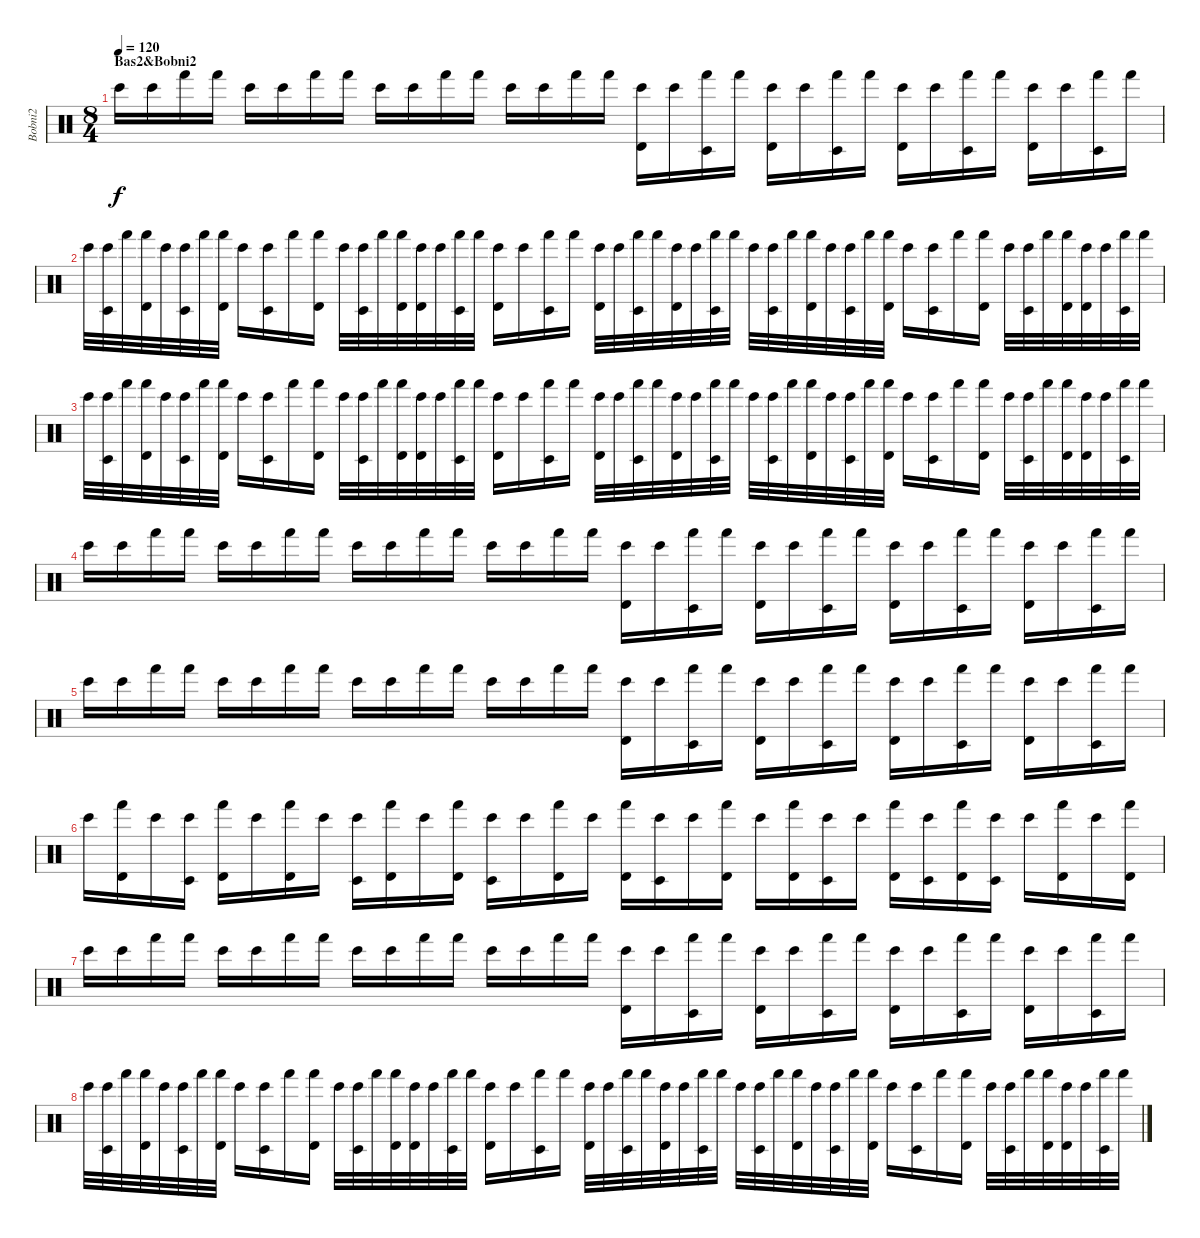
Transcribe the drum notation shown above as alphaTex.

\track ("Bobni2" "Bobni2") {instrument percussion}
\staff {score}
\articulation defaults
\ts (8 4)
\section ("" "Bas2&Bobni2")
\tempo 120
\clef neutral
\ks c "Bongo High (hit)".16{dy f} "Bongo High (hit)".16 "Hand (hit)".16 "Hand (hit)".16 "Bongo High (hit)".16 "Bongo High (hit)".16 "Hand (hit)".16 "Hand (hit)".16 "Bongo High (hit)".16 "Bongo High (hit)".16 "Hand (hit)".16 "Hand (hit)".16 "Bongo High (hit)".16 "Bongo High (hit)".16 "Hand (hit)".16 "Hand (hit)".16
("Bongo High (hit)" "Timbale high (hit)").16 "Bongo High (hit)".16 ("Hand (hit)" "Timbale low (hit)").16 "Hand (hit)".16 ("Bongo High (hit)" "Timbale high (hit)").16 "Bongo High (hit)".16 ("Hand (hit)" "Timbale low (hit)").16 "Hand (hit)".16 ("Bongo High (hit)" "Timbale high (hit)").16 "Bongo High (hit)".16 ("Hand (hit)" "Timbale low (hit)").16 "Hand (hit)".16 ("Bongo High (hit)" "Timbale high (hit)").16 "Bongo High (hit)".16 ("Hand (hit)" "Timbale low (hit)").16 "Hand (hit)".16 |
"Bongo High (hit)".32 ("Bongo High (hit)" "Timbale low (hit)").32 "Hand (hit)".32 ("Hand (hit)" "Timbale high (hit)").32 "Bongo High (hit)".32 ("Bongo High (hit)" "Timbale low (hit)").32 "Hand (hit)".32 ("Hand (hit)" "Timbale high (hit)").32 "Bongo High (hit)".16 ("Bongo High (hit)" "Timbale low (hit)").16 "Hand (hit)".16 ("Hand (hit)" "Timbale high (hit)").16 "Bongo High (hit)".32 ("Bongo High (hit)" "Timbale low (hit)").32 "Hand (hit)".32 ("Hand (hit)" "Timbale high (hit)").32 ("Bongo High (hit)" "Timbale high (hit)").32 "Bongo High (hit)".32 ("Hand (hit)" "Timbale low (hit)").32 "Hand (hit)".32 ("Bongo High (hit)" "Timbale high (hit)").16 "Bongo High (hit)".16 ("Hand (hit)" "Timbale low (hit)").16 "Hand (hit)".16 ("Bongo High (hit)" "Timbale high (hit)").32 "Bongo High (hit)".32 ("Hand (hit)" "Timbale low (hit)").32 "Hand (hit)".32 ("Bongo High (hit)" "Timbale high (hit)").32 "Bongo High (hit)".32 ("Hand (hit)" "Timbale low (hit)").32 "Hand (hit)".32 "Bongo High (hit)".32 ("Bongo High (hit)" "Timbale low (hit)").32 "Hand (hit)".32 ("Hand (hit)" "Timbale high (hit)").32 "Bongo High (hit)".32 ("Bongo High (hit)" "Timbale low (hit)").32 "Hand (hit)".32 ("Hand (hit)" "Timbale high (hit)").32 "Bongo High (hit)".16 ("Bongo High (hit)" "Timbale low (hit)").16 "Hand (hit)".16 ("Hand (hit)" "Timbale high (hit)").16 "Bongo High (hit)".32 ("Bongo High (hit)" "Timbale low (hit)").32 "Hand (hit)".32 ("Hand (hit)" "Timbale high (hit)").32 ("Bongo High (hit)" "Timbale high (hit)").32 "Bongo High (hit)".32 ("Hand (hit)" "Timbale low (hit)").32 "Hand (hit)".32 |
"Bongo High (hit)".32 ("Bongo High (hit)" "Timbale low (hit)").32 "Hand (hit)".32 ("Hand (hit)" "Timbale high (hit)").32 "Bongo High (hit)".32 ("Bongo High (hit)" "Timbale low (hit)").32 "Hand (hit)".32 ("Hand (hit)" "Timbale high (hit)").32 "Bongo High (hit)".16 ("Bongo High (hit)" "Timbale low (hit)").16 "Hand (hit)".16 ("Hand (hit)" "Timbale high (hit)").16 "Bongo High (hit)".32 ("Bongo High (hit)" "Timbale low (hit)").32 "Hand (hit)".32 ("Hand (hit)" "Timbale high (hit)").32 ("Bongo High (hit)" "Timbale high (hit)").32 "Bongo High (hit)".32 ("Hand (hit)" "Timbale low (hit)").32 "Hand (hit)".32 ("Bongo High (hit)" "Timbale high (hit)").16 "Bongo High (hit)".16 ("Hand (hit)" "Timbale low (hit)").16 "Hand (hit)".16 ("Bongo High (hit)" "Timbale high (hit)").32 "Bongo High (hit)".32 ("Hand (hit)" "Timbale low (hit)").32 "Hand (hit)".32 ("Bongo High (hit)" "Timbale high (hit)").32 "Bongo High (hit)".32 ("Hand (hit)" "Timbale low (hit)").32 "Hand (hit)".32 "Bongo High (hit)".32 ("Bongo High (hit)" "Timbale low (hit)").32 "Hand (hit)".32 ("Hand (hit)" "Timbale high (hit)").32 "Bongo High (hit)".32 ("Bongo High (hit)" "Timbale low (hit)").32 "Hand (hit)".32 ("Hand (hit)" "Timbale high (hit)").32 "Bongo High (hit)".16 ("Bongo High (hit)" "Timbale low (hit)").16 "Hand (hit)".16 ("Hand (hit)" "Timbale high (hit)").16 "Bongo High (hit)".32 ("Bongo High (hit)" "Timbale low (hit)").32 "Hand (hit)".32 ("Hand (hit)" "Timbale high (hit)").32 ("Bongo High (hit)" "Timbale high (hit)").32 "Bongo High (hit)".32 ("Hand (hit)" "Timbale low (hit)").32 "Hand (hit)".32 |
"Bongo High (hit)".16 "Bongo High (hit)".16 "Hand (hit)".16 "Hand (hit)".16 "Bongo High (hit)".16 "Bongo High (hit)".16 "Hand (hit)".16 "Hand (hit)".16 "Bongo High (hit)".16 "Bongo High (hit)".16 "Hand (hit)".16 "Hand (hit)".16 "Bongo High (hit)".16 "Bongo High (hit)".16 "Hand (hit)".16 "Hand (hit)".16 ("Bongo High (hit)" "Timbale high (hit)").16 "Bongo High (hit)".16 ("Hand (hit)" "Timbale low (hit)").16 "Hand (hit)".16 ("Bongo High (hit)" "Timbale high (hit)").16 "Bongo High (hit)".16 ("Hand (hit)" "Timbale low (hit)").16 "Hand (hit)".16 ("Bongo High (hit)" "Timbale high (hit)").16 "Bongo High (hit)".16 ("Hand (hit)" "Timbale low (hit)").16 "Hand (hit)".16 ("Bongo High (hit)" "Timbale high (hit)").16 "Bongo High (hit)".16 ("Hand (hit)" "Timbale low (hit)").16 "Hand (hit)".16 |
"Bongo High (hit)".16 "Bongo High (hit)".16 "Hand (hit)".16 "Hand (hit)".16 "Bongo High (hit)".16 "Bongo High (hit)".16 "Hand (hit)".16 "Hand (hit)".16 "Bongo High (hit)".16 "Bongo High (hit)".16 "Hand (hit)".16 "Hand (hit)".16 "Bongo High (hit)".16 "Bongo High (hit)".16 "Hand (hit)".16 "Hand (hit)".16 ("Bongo High (hit)" "Timbale high (hit)").16 "Bongo High (hit)".16 ("Hand (hit)" "Timbale low (hit)").16 "Hand (hit)".16 ("Bongo High (hit)" "Timbale high (hit)").16 "Bongo High (hit)".16 ("Hand (hit)" "Timbale low (hit)").16 "Hand (hit)".16 ("Bongo High (hit)" "Timbale high (hit)").16 "Bongo High (hit)".16 ("Hand (hit)" "Timbale low (hit)").16 "Hand (hit)".16 ("Bongo High (hit)" "Timbale high (hit)").16 "Bongo High (hit)".16 ("Hand (hit)" "Timbale low (hit)").16 "Hand (hit)".16 |
"Bongo High (hit)".16 ("Hand (hit)" "Timbale high (hit)").16 "Bongo High (hit)".16 ("Bongo High (hit)" "Timbale low (hit)").16 ("Hand (hit)" "Timbale high (hit)").16 "Bongo High (hit)".16 ("Hand (hit)" "Timbale high (hit)").16 "Bongo High (hit)".16 ("Bongo High (hit)" "Timbale low (hit)").16 ("Hand (hit)" "Timbale high (hit)").16 "Bongo High (hit)".16 ("Hand (hit)" "Timbale high (hit)").16 ("Bongo High (hit)" "Timbale low (hit)").16 "Bongo High (hit)".16 ("Hand (hit)" "Timbale high (hit)").16 "Bongo High (hit)".16 ("Hand (hit)" "Timbale high (hit)").16 ("Bongo High (hit)" "Timbale low (hit)").16 "Bongo High (hit)".16 ("Hand (hit)" "Timbale high (hit)").16 "Bongo High (hit)".16 ("Hand (hit)" "Timbale high (hit)").16 ("Bongo High (hit)" "Timbale low (hit)").16 "Bongo High (hit)".16 ("Hand (hit)" "Timbale high (hit)").16 ("Bongo High (hit)" "Timbale low (hit)").16 ("Hand (hit)" "Timbale high (hit)").16 ("Bongo High (hit)" "Timbale low (hit)").16 "Bongo High (hit)".16 ("Hand (hit)" "Timbale high (hit)").16 "Bongo High (hit)".16 ("Hand (hit)" "Timbale high (hit)").16 |
"Bongo High (hit)".16 "Bongo High (hit)".16 "Hand (hit)".16 "Hand (hit)".16 "Bongo High (hit)".16 "Bongo High (hit)".16 "Hand (hit)".16 "Hand (hit)".16 "Bongo High (hit)".16 "Bongo High (hit)".16 "Hand (hit)".16 "Hand (hit)".16 "Bongo High (hit)".16 "Bongo High (hit)".16 "Hand (hit)".16 "Hand (hit)".16 ("Bongo High (hit)" "Timbale high (hit)").16 "Bongo High (hit)".16 ("Hand (hit)" "Timbale low (hit)").16 "Hand (hit)".16 ("Bongo High (hit)" "Timbale high (hit)").16 "Bongo High (hit)".16 ("Hand (hit)" "Timbale low (hit)").16 "Hand (hit)".16 ("Bongo High (hit)" "Timbale high (hit)").16 "Bongo High (hit)".16 ("Hand (hit)" "Timbale low (hit)").16 "Hand (hit)".16 ("Bongo High (hit)" "Timbale high (hit)").16 "Bongo High (hit)".16 ("Hand (hit)" "Timbale low (hit)").16 "Hand (hit)".16 |
"Bongo High (hit)".32 ("Bongo High (hit)" "Timbale low (hit)").32 "Hand (hit)".32 ("Hand (hit)" "Timbale high (hit)").32 "Bongo High (hit)".32 ("Bongo High (hit)" "Timbale low (hit)").32 "Hand (hit)".32 ("Hand (hit)" "Timbale high (hit)").32 "Bongo High (hit)".16 ("Bongo High (hit)" "Timbale low (hit)").16 "Hand (hit)".16 ("Hand (hit)" "Timbale high (hit)").16 "Bongo High (hit)".32 ("Bongo High (hit)" "Timbale low (hit)").32 "Hand (hit)".32 ("Hand (hit)" "Timbale high (hit)").32 ("Bongo High (hit)" "Timbale high (hit)").32 "Bongo High (hit)".32 ("Hand (hit)" "Timbale low (hit)").32 "Hand (hit)".32 ("Bongo High (hit)" "Timbale high (hit)").16 "Bongo High (hit)".16 ("Hand (hit)" "Timbale low (hit)").16 "Hand (hit)".16 ("Bongo High (hit)" "Timbale high (hit)").32 "Bongo High (hit)".32 ("Hand (hit)" "Timbale low (hit)").32 "Hand (hit)".32 ("Bongo High (hit)" "Timbale high (hit)").32 "Bongo High (hit)".32 ("Hand (hit)" "Timbale low (hit)").32 "Hand (hit)".32 "Bongo High (hit)".32 ("Bongo High (hit)" "Timbale low (hit)").32 "Hand (hit)".32 ("Hand (hit)" "Timbale high (hit)").32 "Bongo High (hit)".32 ("Bongo High (hit)" "Timbale low (hit)").32 "Hand (hit)".32 ("Hand (hit)" "Timbale high (hit)").32 "Bongo High (hit)".16 ("Bongo High (hit)" "Timbale low (hit)").16 "Hand (hit)".16 ("Hand (hit)" "Timbale high (hit)").16 "Bongo High (hit)".32 ("Bongo High (hit)" "Timbale low (hit)").32 "Hand (hit)".32 ("Hand (hit)" "Timbale high (hit)").32 ("Bongo High (hit)" "Timbale high (hit)").32 "Bongo High (hit)".32 ("Hand (hit)" "Timbale low (hit)").32 "Hand (hit)".32
